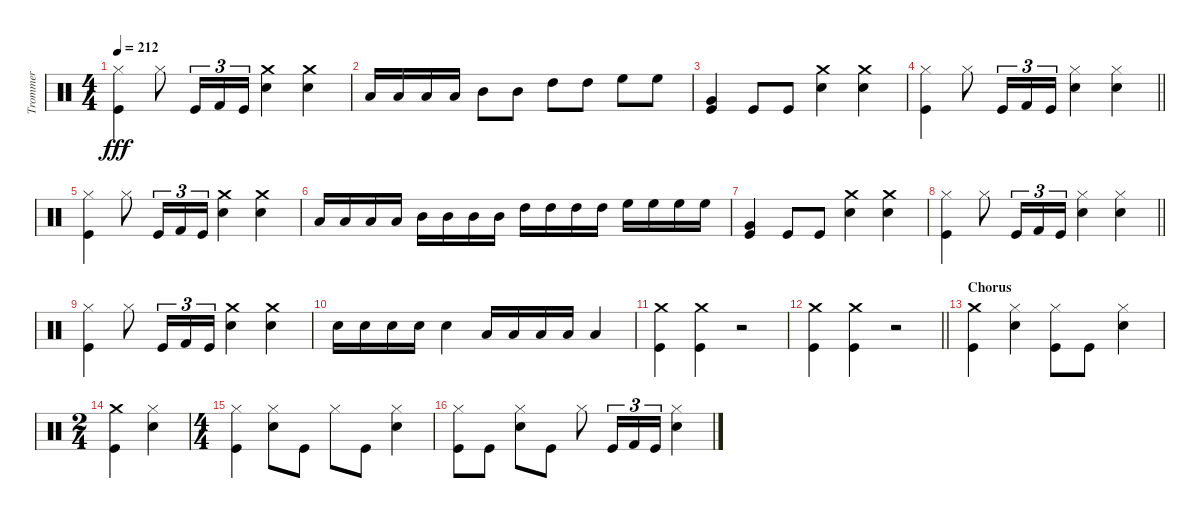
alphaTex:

\track ("Trommer" "Trommer") {instrument percussion}
\staff {score}
\articulation defaults
\ts (4 4)
\tempo 212
\clef neutral
\ks c
("Hi-Hat (closed)" "Kick (hit)").4{dy fff} "Hi-Hat (closed)".8 "Kick (hit)".16{tu (3 2)} "Kick (hit) 2".16{tu (3 2)} "Kick (hit)".16{tu (3 2)} ("Crash medium (hit)" "Snare (hit) 2").4 ("Crash medium (hit)" "Snare (hit) 2").4 |
"Low Tom (hit)".16 "Low Tom (hit)".16 "Low Tom (hit)".16 "Low Tom (hit)".16 "Mid Tom (hit)".8 "Mid Tom (hit)".8 "High Tom (hit)".8 "High Tom (hit)".8 "High Floor Tom (hit)".8 "High Floor Tom (hit)".8 |
("Kick (hit)" "Very Low Tom (hit)").4 "Kick (hit)".8 "Kick (hit)".8 ("Crash medium (hit)" "Snare (hit) 2").4 ("Snare (hit) 2" "Crash medium (hit)").4 |
\barLineRight lightlight
("Kick (hit)" "Hi-Hat (closed)").4 "Hi-Hat (closed)".8 "Kick (hit)".16{tu (3 2)} "Kick (hit) 2".16{tu (3 2)} "Kick (hit)".16{tu (3 2)} ("Snare (hit) 2" "Hi-Hat (closed)").4 ("Snare (hit) 2" "Hi-Hat (closed)").4 |
("Hi-Hat (closed)" "Kick (hit)").4 "Hi-Hat (closed)".8 "Kick (hit)".16{tu (3 2)} "Kick (hit) 2".16{tu (3 2)} "Kick (hit)".16{tu (3 2)} ("Crash medium (hit)" "Snare (hit) 2").4 ("Crash medium (hit)" "Snare (hit) 2").4 |
"Low Tom (hit)".16 "Low Tom (hit)".16 "Low Tom (hit)".16 "Low Tom (hit)".16 "Mid Tom (hit)".16 "Mid Tom (hit)".16 "Mid Tom (hit)".16 "Mid Tom (hit)".16 "High Tom (hit)".16 "High Tom (hit)".16 "High Tom (hit)".16 "High Tom (hit)".16 "High Floor Tom (hit)".16 "High Floor Tom (hit)".16 "High Floor Tom (hit)".16 "High Floor Tom (hit)".16 |
("Kick (hit)" "Very Low Tom (hit)").4 "Kick (hit)".8 "Kick (hit)".8 ("Crash medium (hit)" "Snare (hit) 2").4 ("Crash medium (hit)" "Snare (hit) 2").4 |
\barLineRight lightlight
("Kick (hit)" "Hi-Hat (closed)").4 "Hi-Hat (closed)".8 "Kick (hit)".16{tu (3 2)} "Kick (hit) 2".16{tu (3 2)} "Kick (hit)".16{tu (3 2)} ("Snare (hit) 2" "Hi-Hat (closed)").4 ("Hi-Hat (closed)" "Snare (hit) 2").4 |
("Hi-Hat (closed)" "Kick (hit)").4 "Hi-Hat (closed)".8 "Kick (hit)".16{tu (3 2)} "Kick (hit) 2".16{tu (3 2)} "Kick (hit)".16{tu (3 2)} ("Crash medium (hit)" "Snare (hit) 2").4 ("Crash medium (hit)" "Snare (hit) 2").4 |
"Snare (hit) 2".16 "Snare (hit) 2".16 "Snare (hit) 2".16 "Snare (hit) 2".16 "Snare (hit) 2".4 "Low Tom (hit)".16 "Low Tom (hit)".16 "Low Tom (hit)".16 "Low Tom (hit)".16 "Low Tom (hit)".4 |
("Kick (hit)" "Crash medium (hit)").4 ("Crash medium (hit)" "Kick (hit)").4 r.2 |
\barLineRight lightlight
("Kick (hit)" "Crash medium (hit)").4 ("Crash medium (hit)" "Kick (hit)").4 r.2 |
\section ("" "Chorus")
("Kick (hit)" "Crash medium (hit)").4 ("Snare (hit) 2" "Hi-Hat (closed)").4 ("Kick (hit)" "Hi-Hat (closed)").8 "Kick (hit)".8 ("Snare (hit) 2" "Hi-Hat (closed)").4 |
\ts (2 4)
("Kick (hit)" "Crash medium (hit)").4 ("Hi-Hat (closed)" "Snare (hit) 2").4 |
\ts (4 4)
("Kick (hit)" "Hi-Hat (closed)").4 ("Snare (hit) 2" "Hi-Hat (closed)").8 "Kick (hit)".8 "Hi-Hat (closed)".8 "Kick (hit)".8 ("Snare (hit) 2" "Hi-Hat (closed)").4 |
("Hi-Hat (closed)" "Kick (hit)").8 "Kick (hit)".8 ("Snare (hit) 2" "Hi-Hat (closed)").8 "Kick (hit)".8 "Hi-Hat (closed)".8 "Kick (hit)".16{tu (3 2)} "Kick (hit) 2".16{tu (3 2)} "Kick (hit)".16{tu (3 2)} ("Snare (hit) 2" "Hi-Hat (closed)").4
